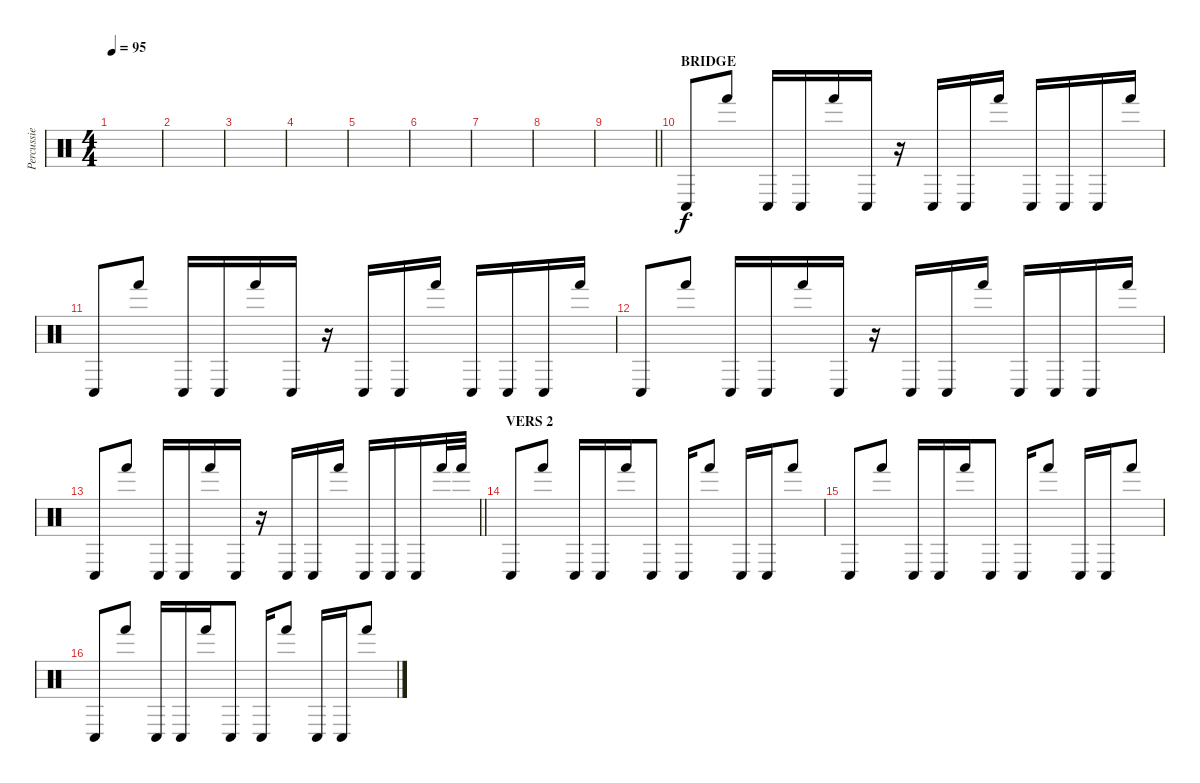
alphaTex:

\track ("Percussie" "Percussie") {instrument percussion}
\staff {score}
\articulation defaults
\ts (4 4)
\tempo 95
\clef neutral
\ks c
|
|
|
|
|
|
|
|
\barLineRight lightlight
|
\section ("" "BRIDGE")
"Conga low (hit)".8 "Hand (hit)".8 "Conga low (hit)".16 "Conga low (hit)".16 "Hand (hit)".16 "Conga low (hit)".16 r.16 "Conga low (hit)".16 "Conga low (hit)".16 "Hand (hit)".16 "Conga low (hit)".16 "Conga low (hit)".16 "Conga low (hit)".16 "Hand (hit)".16 |
"Conga low (hit)".8 "Hand (hit)".8 "Conga low (hit)".16 "Conga low (hit)".16 "Hand (hit)".16 "Conga low (hit)".16 r.16 "Conga low (hit)".16 "Conga low (hit)".16 "Hand (hit)".16 "Conga low (hit)".16 "Conga low (hit)".16 "Conga low (hit)".16 "Hand (hit)".16 |
"Conga low (hit)".8 "Hand (hit)".8 "Conga low (hit)".16 "Conga low (hit)".16 "Hand (hit)".16 "Conga low (hit)".16 r.16 "Conga low (hit)".16 "Conga low (hit)".16 "Hand (hit)".16 "Conga low (hit)".16 "Conga low (hit)".16 "Conga low (hit)".16 "Hand (hit)".16 |
\barLineRight lightlight "Conga low (hit)".8 "Hand (hit)".8 "Conga low (hit)".16 "Conga low (hit)".16 "Hand (hit)".16 "Conga low (hit)".16
r.16 "Conga low (hit)".16 "Conga low (hit)".16 "Hand (hit)".16 "Conga low (hit)".16 "Conga low (hit)".16 "Conga low (hit)".16 "Hand (hit)".32 "Hand (hit)".32 |
\section ("" "VERS 2")
"Conga low (hit)".8 "Hand (hit)".8 "Conga low (hit)".16 "Conga low (hit)".16 "Hand (hit)".16 "Conga low (hit)".8 "Conga low (hit)".16 "Hand (hit)".8 "Conga low (hit)".16 "Conga low (hit)".16 "Hand (hit)".8 |
"Conga low (hit)".8 "Hand (hit)".8 "Conga low (hit)".16 "Conga low (hit)".16 "Hand (hit)".16 "Conga low (hit)".8 "Conga low (hit)".16 "Hand (hit)".8 "Conga low (hit)".16 "Conga low (hit)".16 "Hand (hit)".8 |
"Conga low (hit)".8 "Hand (hit)".8 "Conga low (hit)".16 "Conga low (hit)".16 "Hand (hit)".16 "Conga low (hit)".8 "Conga low (hit)".16 "Hand (hit)".8 "Conga low (hit)".16 "Conga low (hit)".16 "Hand (hit)".8
